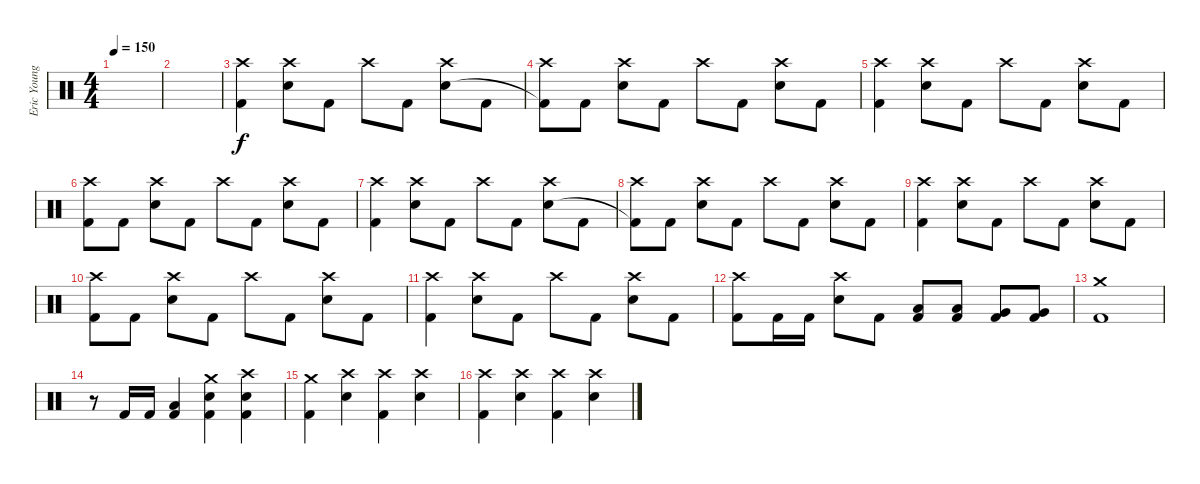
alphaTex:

\track ("Eric Young" "Eric Young") {instrument percussion}
\staff {score}
\articulation defaults
\ts (4 4)
\tempo 150
\clef neutral
\ks c
|
|
("Crash high (hit)" "Kick (hit) 2").4 ("Crash high (hit)" "Electric Snare (hit)").8 "Kick (hit) 2".8 "Crash high (hit)".8 "Kick (hit) 2".8 ("Crash high (hit)" "Electric Snare (hit)").8 "Kick (hit) 2".8 |
("Crash high (hit)" "Kick (hit) 2"{t}).8 "Kick (hit) 2".8 ("Crash high (hit)" "Electric Snare (hit)").8 "Kick (hit) 2".8 "Crash high (hit)".8 "Kick (hit) 2".8 ("Crash high (hit)" "Electric Snare (hit)").8 "Kick (hit) 2".8 |
("Crash high (hit)" "Kick (hit) 2").4 ("Crash high (hit)" "Electric Snare (hit)").8 "Kick (hit) 2".8 "Crash high (hit)".8 "Kick (hit) 2".8 ("Crash high (hit)" "Electric Snare (hit)").8 "Kick (hit) 2".8 |
("Crash high (hit)" "Kick (hit) 2").8 "Kick (hit) 2".8 ("Crash high (hit)" "Electric Snare (hit)").8 "Kick (hit) 2".8 "Crash high (hit)".8 "Kick (hit) 2".8 ("Crash high (hit)" "Electric Snare (hit)").8 "Kick (hit) 2".8 |
("Crash high (hit)" "Kick (hit) 2").4 ("Crash high (hit)" "Electric Snare (hit)").8 "Kick (hit) 2".8 "Crash high (hit)".8 "Kick (hit) 2".8 ("Crash high (hit)" "Electric Snare (hit)").8 "Kick (hit) 2".8 |
("Crash high (hit)" "Kick (hit) 2"{t}).8 "Kick (hit) 2".8 ("Crash high (hit)" "Electric Snare (hit)").8 "Kick (hit) 2".8 "Crash high (hit)".8 "Kick (hit) 2".8 ("Crash high (hit)" "Electric Snare (hit)").8 "Kick (hit) 2".8 |
("Crash high (hit)" "Kick (hit) 2").4 ("Crash high (hit)" "Electric Snare (hit)").8 "Kick (hit) 2".8 "Crash high (hit)".8 "Kick (hit) 2".8 ("Crash high (hit)" "Electric Snare (hit)").8 "Kick (hit) 2".8 |
("Crash high (hit)" "Kick (hit) 2").8 "Kick (hit) 2".8 ("Crash high (hit)" "Electric Snare (hit)").8 "Kick (hit) 2".8 "Crash high (hit)".8 "Kick (hit) 2".8 ("Crash high (hit)" "Electric Snare (hit)").8 "Kick (hit) 2".8 |
("Crash high (hit)" "Kick (hit) 2").4 ("Crash high (hit)" "Electric Snare (hit)").8 "Kick (hit) 2".8 "Crash high (hit)".8 "Kick (hit) 2".8 ("Crash high (hit)" "Electric Snare (hit)").8 "Kick (hit) 2".8 |
("Crash high (hit)" "Kick (hit) 2").8 "Kick (hit) 2".16 "Kick (hit) 2".16 ("Crash high (hit)" "Electric Snare (hit)").8 "Kick (hit) 2".8 ("Low Tom (hit)" "Kick (hit) 2").8 ("Low Tom (hit)" "Kick (hit) 2").8 ("Very Low Tom (hit)" "Kick (hit) 2").8 ("Very Low Tom (hit)" "Kick (hit) 2").8 |
("Crash medium (hit)" "Kick (hit) 2").1 |
r.8 "Kick (hit) 2".16 "Kick (hit) 2".16 ("Low Tom (hit)" "Kick (hit) 2").4 ("Crash medium (hit)" "Electric Snare (hit)" "Kick (hit) 2").4 ("Crash high (hit)" "Electric Snare (hit)" "Kick (hit) 2").4 |
("Crash medium (hit)" "Kick (hit) 2").4 ("Crash high (hit)" "Electric Snare (hit)").4 ("Crash high (hit)" "Kick (hit) 2").4 ("Crash high (hit)" "Electric Snare (hit)").4 |
("Crash high (hit)" "Kick (hit) 2").4 ("Crash high (hit)" "Electric Snare (hit)").4 ("Crash high (hit)" "Kick (hit) 2").4 ("Crash high (hit)" "Electric Snare (hit)").4
